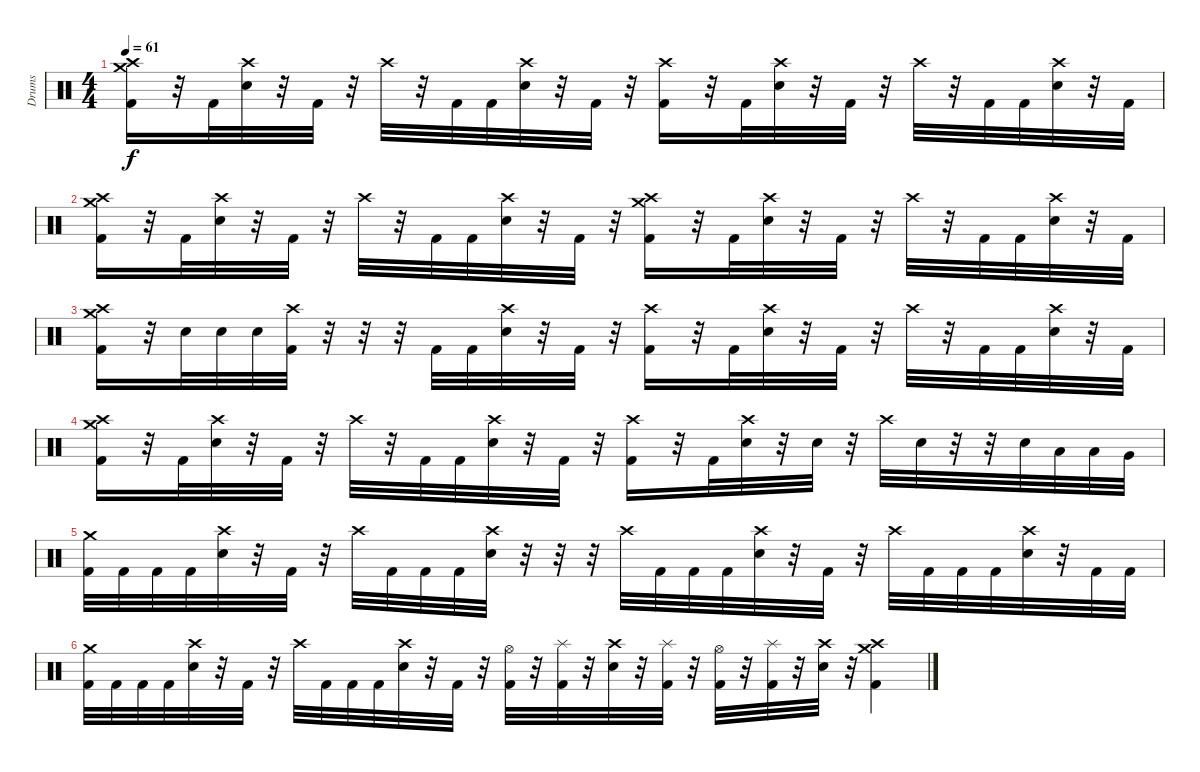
\track ("Drums" "Drums") {instrument percussion}
\staff {score}
\articulation defaults
\ts (4 4)
\tempo 61
\clef neutral
\ks c
("Crash high (hit)" "Crash medium (hit)" "Kick (hit) 2").16{dy f} r.32 "Kick (hit) 2".32 ("Crash high (hit)" "Electric Snare (hit)").32 r.32 "Kick (hit) 2".32 r.32 "Crash high (hit)".32 r.32 "Kick (hit) 2".32 "Kick (hit) 2".32 ("Crash high (hit)" "Electric Snare (hit)").32 r.32 "Kick (hit) 2".32 r.32 ("Crash high (hit)" "Kick (hit) 2").16 r.32 "Kick (hit) 2".32 ("Crash high (hit)" "Electric Snare (hit)").32 r.32 "Kick (hit) 2".32 r.32 "Crash high (hit)".32 r.32 "Kick (hit) 2".32 "Kick (hit) 2".32 ("Crash high (hit)" "Electric Snare (hit)").32 r.32 "Kick (hit) 2".32 |
("Crash high (hit)" "Crash medium (hit)" "Kick (hit) 2").16 r.32 "Kick (hit) 2".32 ("Crash high (hit)" "Electric Snare (hit)").32 r.32 "Kick (hit) 2".32 r.32 "Crash high (hit)".32 r.32 "Kick (hit) 2".32 "Kick (hit) 2".32 ("Crash high (hit)" "Electric Snare (hit)").32 r.32 "Kick (hit) 2".32 r.32 ("Crash high (hit)" "Crash medium (hit)" "Kick (hit) 2").16 r.32 "Kick (hit) 2".32 ("Crash high (hit)" "Electric Snare (hit)").32 r.32 "Kick (hit) 2".32 r.32 "Crash high (hit)".32 r.32 "Kick (hit) 2".32 "Kick (hit) 2".32 ("Crash high (hit)" "Electric Snare (hit)").32 r.32 "Kick (hit) 2".32 |
("Crash high (hit)" "Crash medium (hit)" "Kick (hit) 2").16 r.32 "Electric Snare (hit)".32 "Electric Snare (hit)".32 "Electric Snare (hit)".32 ("Crash high (hit)" "Kick (hit) 2").32 r.32 r.32 r.32 "Kick (hit) 2".32 "Kick (hit) 2".32 ("Crash high (hit)" "Electric Snare (hit)").32 r.32 "Kick (hit) 2".32 r.32 ("Crash high (hit)" "Kick (hit) 2").16 r.32 "Kick (hit) 2".32 ("Crash high (hit)" "Electric Snare (hit)").32 r.32 "Kick (hit) 2".32 r.32 "Crash high (hit)".32 r.32 "Kick (hit) 2".32 "Kick (hit) 2".32 ("Crash high (hit)" "Electric Snare (hit)").32 r.32 "Kick (hit) 2".32 |
("Crash high (hit)" "Crash medium (hit)" "Kick (hit) 2").16 r.32 "Kick (hit) 2".32 ("Crash high (hit)" "Electric Snare (hit)").32 r.32 "Kick (hit) 2".32 r.32 "Crash high (hit)".32 r.32 "Kick (hit) 2".32 "Kick (hit) 2".32 ("Crash high (hit)" "Electric Snare (hit)").32 r.32 "Kick (hit) 2".32 r.32 ("Crash high (hit)" "Kick (hit) 2").16 r.32 "Kick (hit) 2".32 ("Crash high (hit)" "Electric Snare (hit)").32 r.32 "Electric Snare (hit)".32 r.32 "Crash high (hit)".32 "Electric Snare (hit)".32 r.32 r.32 "Electric Snare (hit)".32 "Low Tom (hit)".32 "Low Tom (hit)".32 "Very Low Tom (hit)".32 |
("Crash medium (hit)" "Kick (hit) 2").32 "Kick (hit) 2".32 "Kick (hit) 2".32 "Kick (hit) 2".32 ("Crash high (hit)" "Electric Snare (hit)").32 r.32 "Kick (hit) 2".32 r.32 "Crash high (hit)".32 "Kick (hit) 2".32 "Kick (hit) 2".32 "Kick (hit) 2".32 ("Crash high (hit)" "Electric Snare (hit)").32 r.32 r.32 r.32 "Crash high (hit)".32 "Kick (hit) 2".32 "Kick (hit) 2".32 "Kick (hit) 2".32 ("Crash high (hit)" "Electric Snare (hit)").32 r.32 "Kick (hit) 2".32 r.32 "Crash high (hit)".32 "Kick (hit) 2".32 "Kick (hit) 2".32 "Kick (hit) 2".32 ("Crash high (hit)" "Electric Snare (hit)").32 r.32 "Kick (hit) 2".32 "Kick (hit) 2".32 |
("Crash medium (hit)" "Kick (hit) 2").32 "Kick (hit) 2".32 "Kick (hit) 2".32 "Kick (hit) 2".32 ("Crash high (hit)" "Electric Snare (hit)").32 r.32 "Kick (hit) 2".32 r.32 "Crash high (hit)".32 "Kick (hit) 2".32 "Kick (hit) 2".32 "Kick (hit) 2".32 ("Crash high (hit)" "Electric Snare (hit)").32 r.32 "Kick (hit) 2".32 r.32 ("Hi-Hat (open)" "Kick (hit) 2").32 r.32 ("Splash (hit)" "Kick (hit) 2").32 r.32 ("Crash high (hit)" "Electric Snare (hit)").32 r.32 ("Splash (hit)" "Kick (hit) 2").32 r.32 ("Hi-Hat (open)" "Kick (hit) 2").32 r.32 ("Splash (hit)" "Kick (hit) 2").32 r.32 ("Crash high (hit)" "Electric Snare (hit)").32 r.32 ("Crash medium (hit)" "Crash high (hit)" "Kick (hit) 2").4
